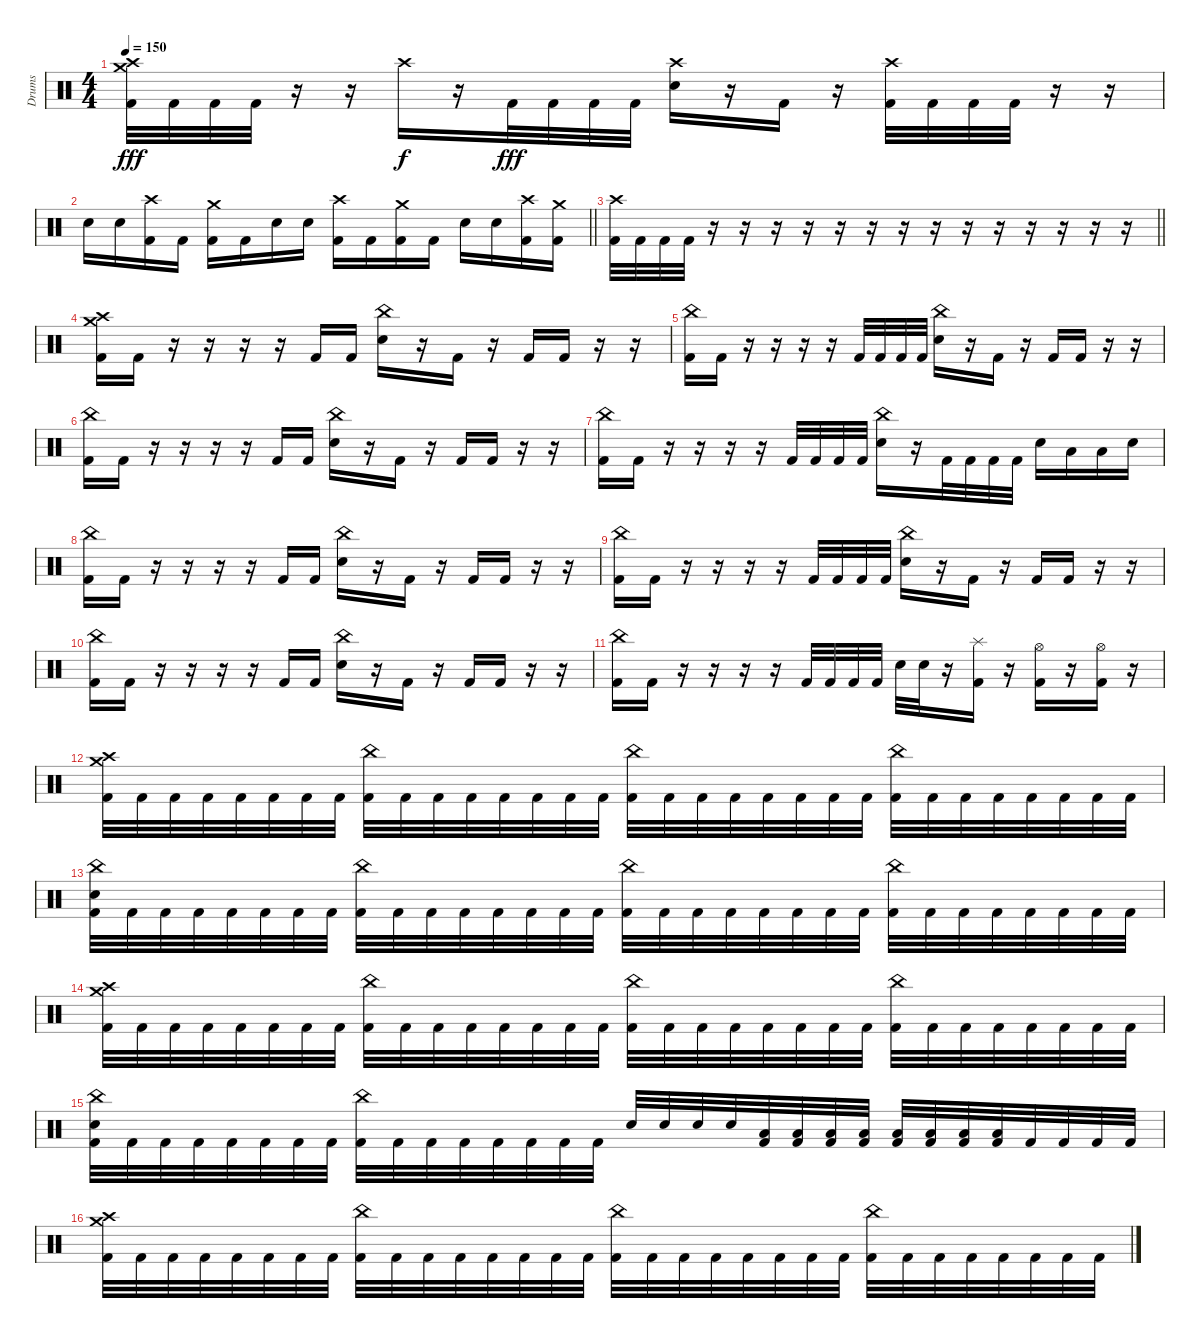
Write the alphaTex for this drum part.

\track ("Drums" "Drums") {instrument percussion}
\staff {score}
\articulation defaults
\ts (4 4)
\tempo 150
\clef neutral
\ks c
("Crash high (hit)" "Crash medium (hit)" "Kick (hit) 2").32{dy fff} "Kick (hit) 2".32 "Kick (hit) 2".32 "Kick (hit) 2".32 r.16 r.16 "Crash high (hit)".16{dy f} r.16 "Kick (hit) 2".32{dy fff} "Kick (hit) 2".32 "Kick (hit) 2".32 "Kick (hit) 2".32 ("Crash high (hit)" "Electric Snare (hit)").16 r.16 "Kick (hit) 2".16 r.16 ("Crash high (hit)" "Kick (hit) 2").32 "Kick (hit) 2".32 "Kick (hit) 2".32 "Kick (hit) 2".32 r.16 r.16 |
\barLineRight lightlight "Electric Snare (hit)".16 "Electric Snare (hit)".16
("Crash high (hit)" "Kick (hit) 2").16 "Kick (hit) 2".16 ("Crash medium (hit)" "Kick (hit) 2").16 "Kick (hit) 2".16 "Electric Snare (hit)".16 "Electric Snare (hit)".16 ("Crash high (hit)" "Kick (hit) 2").16 "Kick (hit) 2".16 ("Crash medium (hit)" "Kick (hit) 2").16 "Kick (hit) 2".16 "Electric Snare (hit)".16 "Electric Snare (hit)".16 ("Crash high (hit)" "Kick (hit) 2").16 ("Crash medium (hit)" "Kick (hit) 2").16 |
\section ("" "")
\barLineRight lightlight
("Crash high (hit)" "Kick (hit) 2").32 "Kick (hit) 2".32 "Kick (hit) 2".32 "Kick (hit) 2".32 r.16{volume 0} r.16 r.16 r.16 r.16 r.16 r.16 r.16 r.16 r.16 r.16 r.16 r.16 r.16 |
\section ("" "")
("Crash high (hit)" "Crash medium (hit)" "Kick (hit) 2").16{volume 13} "Kick (hit) 2".16 r.16 r.16 r.16 r.16 "Kick (hit) 2".16 "Kick (hit) 2".16 ("China (hit)" "Electric Snare (hit)").16 r.16 "Kick (hit) 2".16 r.16 "Kick (hit) 2".16 "Kick (hit) 2".16 r.16 r.16 |
("China (hit)" "Kick (hit) 2").16 "Kick (hit) 2".16 r.16 r.16 r.16 r.16 "Kick (hit) 2".32 "Kick (hit) 2".32 "Kick (hit) 2".32 "Kick (hit) 2".32 ("China (hit)" "Electric Snare (hit)").16 r.16 "Kick (hit) 2".16 r.16 "Kick (hit) 2".16 "Kick (hit) 2".16 r.16 r.16 |
("China (hit)" "Kick (hit) 2").16 "Kick (hit) 2".16 r.16 r.16 r.16 r.16 "Kick (hit) 2".16 "Kick (hit) 2".16 ("China (hit)" "Electric Snare (hit)").16 r.16 "Kick (hit) 2".16 r.16 "Kick (hit) 2".16 "Kick (hit) 2".16 r.16 r.16 |
("China (hit)" "Kick (hit) 2").16 "Kick (hit) 2".16 r.16 r.16 r.16 r.16 "Kick (hit) 2".32 "Kick (hit) 2".32 "Kick (hit) 2".32 "Kick (hit) 2".32 ("China (hit)" "Electric Snare (hit)").16 r.16 "Kick (hit) 2".32 "Kick (hit) 2".32 "Kick (hit) 2".32 "Kick (hit) 2".32 "Electric Snare (hit)".16 "Low Tom (hit)".16 "Low Floor Tom (hit)".16 "Electric Snare (hit)".16 |
("China (hit)" "Kick (hit) 2").16 "Kick (hit) 2".16 r.16 r.16 r.16 r.16 "Kick (hit) 2".16 "Kick (hit) 2".16 ("China (hit)" "Electric Snare (hit)").16 r.16 "Kick (hit) 2".16 r.16 "Kick (hit) 2".16 "Kick (hit) 2".16 r.16 r.16 |
("China (hit)" "Kick (hit) 2").16 "Kick (hit) 2".16 r.16 r.16 r.16 r.16 "Kick (hit) 2".32 "Kick (hit) 2".32 "Kick (hit) 2".32 "Kick (hit) 2".32 ("China (hit)" "Electric Snare (hit)").16 r.16 "Kick (hit) 2".16 r.16 "Kick (hit) 2".16 "Kick (hit) 2".16 r.16 r.16 |
("China (hit)" "Kick (hit) 2").16 "Kick (hit) 2".16 r.16 r.16 r.16 r.16 "Kick (hit) 2".16 "Kick (hit) 2".16 ("China (hit)" "Electric Snare (hit)").16 r.16 "Kick (hit) 2".16 r.16 "Kick (hit) 2".16 "Kick (hit) 2".16 r.16 r.16 |
("China (hit)" "Kick (hit) 2").16 "Kick (hit) 2".16 r.16 r.16 r.16 r.16 "Kick (hit) 2".32 "Kick (hit) 2".32 "Kick (hit) 2".32 "Kick (hit) 2".32 "Electric Snare (hit)".32 "Electric Snare (hit)".32 r.16 ("Splash (hit)" "Kick (hit) 2").16 r.16 ("Hi-Hat (open)" "Kick (hit) 2").16 r.16 ("Hi-Hat (open)" "Kick (hit) 2").16 r.16 |
("Crash high (hit)" "Crash medium (hit)" "Kick (hit) 2").32 "Kick (hit) 2".32 "Kick (hit) 2".32 "Kick (hit) 2".32 "Kick (hit) 2".32 "Kick (hit) 2".32 "Kick (hit) 2".32 "Kick (hit) 2".32 ("China (hit)" "Kick (hit) 2").32 "Kick (hit) 2".32 "Kick (hit) 2".32 "Kick (hit) 2".32 "Kick (hit) 2".32 "Kick (hit) 2".32 "Kick (hit) 2".32 "Kick (hit) 2".32 ("China (hit)" "Kick (hit) 2").32 "Kick (hit) 2".32 "Kick (hit) 2".32 "Kick (hit) 2".32 "Kick (hit) 2".32 "Kick (hit) 2".32 "Kick (hit) 2".32 "Kick (hit) 2".32 ("China (hit)" "Kick (hit) 2").32 "Kick (hit) 2".32 "Kick (hit) 2".32 "Kick (hit) 2".32 "Kick (hit) 2".32 "Kick (hit) 2".32 "Kick (hit) 2".32 "Kick (hit) 2".32 |
("China (hit)" "Electric Snare (hit)" "Kick (hit) 2").32 "Kick (hit) 2".32 "Kick (hit) 2".32 "Kick (hit) 2".32 "Kick (hit) 2".32 "Kick (hit) 2".32 "Kick (hit) 2".32 "Kick (hit) 2".32 ("China (hit)" "Kick (hit) 2").32 "Kick (hit) 2".32 "Kick (hit) 2".32 "Kick (hit) 2".32 "Kick (hit) 2".32 "Kick (hit) 2".32 "Kick (hit) 2".32 "Kick (hit) 2".32 ("China (hit)" "Kick (hit) 2").32 "Kick (hit) 2".32 "Kick (hit) 2".32 "Kick (hit) 2".32 "Kick (hit) 2".32 "Kick (hit) 2".32 "Kick (hit) 2".32 "Kick (hit) 2".32 ("China (hit)" "Kick (hit) 2").32 "Kick (hit) 2".32 "Kick (hit) 2".32 "Kick (hit) 2".32 "Kick (hit) 2".32 "Kick (hit) 2".32 "Kick (hit) 2".32 "Kick (hit) 2".32 |
("Crash high (hit)" "Crash medium (hit)" "Kick (hit) 2").32 "Kick (hit) 2".32 "Kick (hit) 2".32 "Kick (hit) 2".32 "Kick (hit) 2".32 "Kick (hit) 2".32 "Kick (hit) 2".32 "Kick (hit) 2".32 ("China (hit)" "Kick (hit) 2").32 "Kick (hit) 2".32 "Kick (hit) 2".32 "Kick (hit) 2".32 "Kick (hit) 2".32 "Kick (hit) 2".32 "Kick (hit) 2".32 "Kick (hit) 2".32 ("China (hit)" "Kick (hit) 2").32 "Kick (hit) 2".32 "Kick (hit) 2".32 "Kick (hit) 2".32 "Kick (hit) 2".32 "Kick (hit) 2".32 "Kick (hit) 2".32 "Kick (hit) 2".32 ("China (hit)" "Kick (hit) 2").32 "Kick (hit) 2".32 "Kick (hit) 2".32 "Kick (hit) 2".32 "Kick (hit) 2".32 "Kick (hit) 2".32 "Kick (hit) 2".32 "Kick (hit) 2".32 |
("China (hit)" "Electric Snare (hit)" "Kick (hit) 2").32 "Kick (hit) 2".32 "Kick (hit) 2".32 "Kick (hit) 2".32 "Kick (hit) 2".32 "Kick (hit) 2".32 "Kick (hit) 2".32 "Kick (hit) 2".32 ("China (hit)" "Kick (hit) 2").32 "Kick (hit) 2".32 "Kick (hit) 2".32 "Kick (hit) 2".32 "Kick (hit) 2".32 "Kick (hit) 2".32 "Kick (hit) 2".32 "Kick (hit) 2".32 "Electric Snare (hit)".32 "Electric Snare (hit)".32 "Electric Snare (hit)".32 "Electric Snare (hit)".32 ("Low Tom (hit)" "Kick (hit) 2").32 ("Low Tom (hit)" "Kick (hit) 2").32 ("Low Tom (hit)" "Kick (hit) 2").32 ("Low Tom (hit)" "Kick (hit) 2").32 ("Low Floor Tom (hit)" "Kick (hit) 2").32 ("Low Floor Tom (hit)" "Kick (hit) 2").32 ("Low Floor Tom (hit)" "Kick (hit) 2").32 ("Low Floor Tom (hit)" "Kick (hit) 2").32 "Kick (hit) 2".32 "Kick (hit) 2".32 "Kick (hit) 2".32 "Kick (hit) 2".32 |
("Crash high (hit)" "Crash medium (hit)" "Kick (hit) 2").32 "Kick (hit) 2".32 "Kick (hit) 2".32 "Kick (hit) 2".32 "Kick (hit) 2".32 "Kick (hit) 2".32 "Kick (hit) 2".32 "Kick (hit) 2".32 ("China (hit)" "Kick (hit) 2").32 "Kick (hit) 2".32 "Kick (hit) 2".32 "Kick (hit) 2".32 "Kick (hit) 2".32 "Kick (hit) 2".32 "Kick (hit) 2".32 "Kick (hit) 2".32 ("China (hit)" "Kick (hit) 2").32 "Kick (hit) 2".32 "Kick (hit) 2".32 "Kick (hit) 2".32 "Kick (hit) 2".32 "Kick (hit) 2".32 "Kick (hit) 2".32 "Kick (hit) 2".32 ("China (hit)" "Kick (hit) 2").32 "Kick (hit) 2".32 "Kick (hit) 2".32 "Kick (hit) 2".32 "Kick (hit) 2".32 "Kick (hit) 2".32 "Kick (hit) 2".32 "Kick (hit) 2".32
